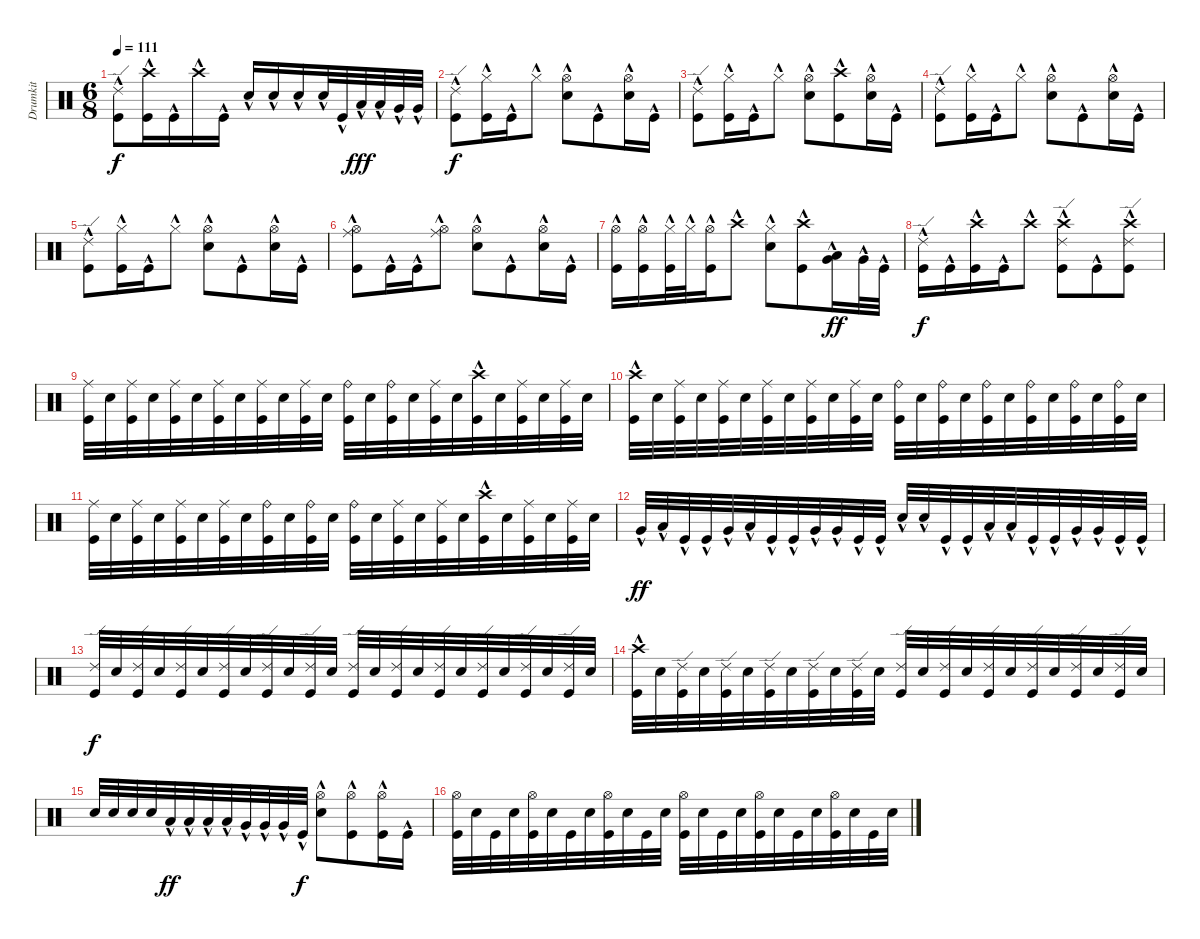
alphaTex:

\track ("Drumkit" "Drumkit") {instrument percussion}
\staff {score}
\articulation defaults
\ts (6 8)
\tempo 111
\clef neutral
\ks c
("Kick (hit)"{hac} "Ride (edge) 2"{hac}).8{dy f} ("Kick (hit)"{hac} "Crash high (hit)"{hac}).16 "Kick (hit)"{hac}.16 "Crash high (hit)"{hac}.16 "Kick (hit)"{hac}.16 "Snare (hit) 2"{hac}.16 "Snare (hit) 2"{hac}.16 "Snare (hit) 2"{hac}.16 "Snare (hit) 2"{hac}.32 "Kick (hit)"{hac}.32 "Low Tom (hit)"{hac}.32{dy fff} "Low Tom (hit)"{hac}.32 "Very Low Tom (hit)"{hac}.32 "Very Low Tom (hit)"{hac}.32 |
("Ride (edge) 2"{hac} "Kick (hit)"{hac}).8{dy f} ("Kick (hit)"{hac} "Hi-Hat (closed)"{hac}).16 "Kick (hit)"{hac}.16 "Hi-Hat (closed)"{hac}.8 ("Snare (hit) 2"{hac} "Hi-Hat (open)"{hac}).8 "Kick (hit)"{hac}.8 ("Snare (hit) 2"{hac} "Hi-Hat (open)"{hac}).16 "Kick (hit)"{hac}.16 |
("Ride (edge) 2"{hac} "Kick (hit)"{hac}).8 ("Kick (hit)"{hac} "Hi-Hat (closed)"{hac}).16 "Kick (hit)"{hac}.16 "Hi-Hat (closed)"{hac}.8 ("Snare (hit) 2"{hac} "Hi-Hat (open)"{hac}).8 ("Kick (hit)"{hac} "Crash high (hit)"{hac}).8 ("Snare (hit) 2"{hac} "Hi-Hat (open)"{hac}).16 "Kick (hit)"{hac}.16 |
("Kick (hit)"{hac} "Ride (edge) 2"{hac}).8 ("Kick (hit)"{hac} "Hi-Hat (closed)"{hac}).16 "Kick (hit)"{hac}.16 "Hi-Hat (closed)"{hac}.8 ("Snare (hit) 2"{hac} "Hi-Hat (open)"{hac}).8 "Kick (hit)"{hac}.8 ("Snare (hit) 2"{hac} "Hi-Hat (open)"{hac}).16 "Kick (hit)"{hac}.16 |
("Ride (edge) 2"{hac} "Kick (hit)"{hac}).8 ("Kick (hit)"{hac} "Hi-Hat (closed)"{hac}).16 "Kick (hit)"{hac}.16 "Hi-Hat (closed)"{hac}.8 ("Snare (hit) 2"{hac} "Hi-Hat (open)"{hac}).8 "Kick (hit)"{hac}.8 ("Snare (hit) 2"{hac} "Hi-Hat (open)"{hac}).16 "Kick (hit)"{hac}.16 |
("Kick (hit)"{hac} "Hi-Hat (open)"{hac} "Ride (middle)"{hac}).8 "Kick (hit)"{hac}.16 "Kick (hit)"{hac}.16 ("Hi-Hat (open)"{hac} "Ride (middle)"{hac}).8 ("Snare (hit) 2"{hac} "Hi-Hat (open)"{hac}).8 "Kick (hit)"{hac}.8 ("Snare (hit) 2"{hac} "Hi-Hat (open)"{hac}).16 "Kick (hit)"{hac}.16 |
("Kick (hit)"{hac} "Hi-Hat (open)"{hac}).16 ("Kick (hit)"{hac} "Hi-Hat (open)"{hac}).16 ("Kick (hit)"{hac} "Hi-Hat (closed)"{hac}).32 "Hi-Hat (closed)"{hac}.32 ("Kick (hit)"{hac} "Hi-Hat (open)"{hac}).16 "Crash high (hit)"{hac}.8 ("Snare (hit) 2"{hac} "Hi-Hat (closed)"{hac}).8 ("Kick (hit)"{hac} "Crash high (hit)"{hac}).8 ("Very Low Tom (hit)"{hac} "Low Tom (hit)"{hac}).16{dy ff} "Very Low Tom (hit)"{hac}.32 "Kick (hit)"{hac}.32 |
("Kick (hit)"{hac} "Ride (edge) 2"{hac}).16{dy f} "Kick (hit)"{hac}.16 ("Kick (hit)"{hac} "Crash high (hit)"{hac}).16 "Kick (hit)"{hac}.16 "Crash high (hit)"{hac}.8 ("Kick (hit)"{hac} "Crash high (hit)"{hac} "Ride (edge) 2"{hac}).8 "Kick (hit)"{hac}.8 ("Kick (hit)"{hac} "Crash high (hit)"{hac} "Ride (edge) 2"{hac}).8 |
("Kick (hit)" "Ride (middle)").32 "Snare (hit) 2".32 ("Kick (hit)" "Ride (middle)").32 "Snare (hit) 2".32 ("Kick (hit)" "Ride (middle)").32 "Snare (hit) 2".32 ("Kick (hit)" "Ride (middle)").32 "Snare (hit) 2".32 ("Kick (hit)" "Ride (middle)").32 "Snare (hit) 2".32 ("Kick (hit)" "Ride (middle)").32 "Snare (hit) 2".32 ("Kick (hit)" "Ride (bell)").32 "Snare (hit) 2".32 ("Kick (hit)" "Ride (bell)").32 "Snare (hit) 2".32 ("Kick (hit)" "Ride (middle)").32 "Snare (hit) 2".32 ("Kick (hit)" "Crash high (hit)"{hac}).32 "Snare (hit) 2".32 ("Kick (hit)" "Ride (middle)").32 "Snare (hit) 2".32 ("Kick (hit)" "Ride (middle)").32 "Snare (hit) 2".32 |
("Kick (hit)" "Crash high (hit)"{hac}).32 "Snare (hit) 2".32 ("Kick (hit)" "Ride (middle)").32 "Snare (hit) 2".32 ("Kick (hit)" "Ride (middle)").32 "Snare (hit) 2".32 ("Kick (hit)" "Ride (middle)").32 "Snare (hit) 2".32 ("Kick (hit)" "Ride (middle)").32 "Snare (hit) 2".32 ("Kick (hit)" "Ride (middle)").32 "Snare (hit) 2".32 ("Kick (hit)" "Ride (bell)").32 "Snare (hit) 2".32 ("Kick (hit)" "Ride (bell)").32 "Snare (hit) 2".32 ("Kick (hit)" "Ride (bell)").32 "Snare (hit) 2".32 ("Kick (hit)" "Ride (bell)").32 "Snare (hit) 2".32 ("Kick (hit)" "Ride (bell)").32 "Snare (hit) 2".32 ("Kick (hit)" "Ride (bell)").32 "Snare (hit) 2".32 |
("Kick (hit)" "Ride (middle)").32 "Snare (hit) 2".32 ("Kick (hit)" "Ride (middle)").32 "Snare (hit) 2".32 ("Kick (hit)" "Ride (middle)").32 "Snare (hit) 2".32 ("Kick (hit)" "Ride (middle)").32 "Snare (hit) 2".32 ("Kick (hit)" "Ride (bell)").32 "Snare (hit) 2".32 ("Kick (hit)" "Ride (bell)").32 "Snare (hit) 2".32 ("Kick (hit)" "Ride (bell)").32 "Snare (hit) 2".32 ("Kick (hit)" "Ride (middle)").32 "Snare (hit) 2".32 ("Kick (hit)" "Ride (middle)").32 "Snare (hit) 2".32 ("Kick (hit)" "Crash high (hit)"{hac}).32 "Snare (hit) 2".32 ("Kick (hit)" "Ride (middle)").32 "Snare (hit) 2".32 ("Kick (hit)" "Ride (middle)").32 "Snare (hit) 2".32 |
"Very Low Tom (hit)"{hac}.32{dy ff} "Low Tom (hit)"{hac}.32 "Kick (hit)"{hac}.32 "Kick (hit)"{hac}.32 "Very Low Tom (hit)"{hac}.32 "Low Tom (hit)"{hac}.32 "Kick (hit)"{hac}.32 "Kick (hit)"{hac}.32 "Very Low Tom (hit)"{hac}.32 "Very Low Tom (hit)"{hac}.32 "Kick (hit)"{hac}.32 "Kick (hit)"{hac}.32 "Snare (hit) 2"{hac}.32 "Snare (hit) 2"{hac}.32 "Kick (hit)"{hac}.32 "Kick (hit)"{hac}.32 "Low Tom (hit)"{hac}.32 "Low Tom (hit)"{hac}.32 "Kick (hit)"{hac}.32 "Kick (hit)"{hac}.32 "Very Low Tom (hit)"{hac}.32 "Very Low Tom (hit)"{hac}.32 "Kick (hit)"{hac}.32 "Kick (hit)"{hac}.32 |
("Kick (hit)" "Ride (edge) 2").32{dy f} "Snare (hit) 2".32 ("Kick (hit)" "Ride (edge) 2").32 "Snare (hit) 2".32 ("Kick (hit)" "Ride (edge) 2").32 "Snare (hit) 2".32 ("Kick (hit)" "Ride (edge) 2").32 "Snare (hit) 2".32 ("Kick (hit)" "Ride (edge) 2").32 "Snare (hit) 2".32 ("Kick (hit)" "Ride (edge) 2").32 "Snare (hit) 2".32 ("Kick (hit)" "Ride (edge) 2").32 "Snare (hit) 2".32 ("Kick (hit)" "Ride (edge) 2").32 "Snare (hit) 2".32 ("Kick (hit)" "Ride (edge) 2").32 "Snare (hit) 2".32 ("Kick (hit)" "Ride (edge) 2").32 "Snare (hit) 2".32 ("Kick (hit)" "Ride (edge) 2").32 "Snare (hit) 2".32 ("Kick (hit)" "Ride (edge) 2").32 "Snare (hit) 2".32 |
("Kick (hit)" "Crash high (hit)"{hac}).32 "Snare (hit) 2".32 ("Kick (hit)" "Ride (edge) 2").32 "Snare (hit) 2".32 ("Kick (hit)" "Ride (edge) 2").32 "Snare (hit) 2".32 ("Kick (hit)" "Ride (edge) 2").32 "Snare (hit) 2".32 ("Kick (hit)" "Ride (edge) 2").32 "Snare (hit) 2".32 ("Kick (hit)" "Ride (edge) 2").32 "Snare (hit) 2".32 ("Kick (hit)" "Ride (edge) 2").32 "Snare (hit) 2".32 ("Kick (hit)" "Ride (edge) 2").32 "Snare (hit) 2".32 ("Kick (hit)" "Ride (edge) 2").32 "Snare (hit) 2".32 ("Kick (hit)" "Ride (edge) 2").32 "Snare (hit) 2".32 ("Kick (hit)" "Ride (edge) 2").32 "Snare (hit) 2".32 ("Kick (hit)" "Ride (edge) 2").32 "Snare (hit) 2".32 |
"Snare (hit) 2".32 "Snare (hit) 2".32 "Snare (hit) 2".32 "Snare (hit) 2".32 "Low Tom (hit)"{hac}.32{dy ff} "Low Tom (hit)"{hac}.32 "Low Tom (hit)"{hac}.32 "Low Tom (hit)"{hac}.32 "Very Low Tom (hit)"{hac}.32 "Very Low Tom (hit)"{hac}.32 "Very Low Tom (hit)"{hac}.32 "Kick (hit)"{hac}.32{dy f} ("Snare (hit) 2"{hac} "Hi-Hat (open)"{hac}).8 ("Kick (hit)"{hac} "Hi-Hat (open)"{hac}).8 ("Kick (hit)"{hac} "Hi-Hat (open)"{hac}).16 "Kick (hit)"{hac}.16 |
("Kick (hit)" "Hi-Hat (open)").32 "Snare (hit) 2".32 "Kick (hit)".32 "Snare (hit) 2".32 ("Kick (hit)" "Hi-Hat (open)").32 "Snare (hit) 2".32 "Kick (hit)".32 "Snare (hit) 2".32 ("Kick (hit)" "Hi-Hat (open)").32 "Snare (hit) 2".32 "Kick (hit)".32 "Snare (hit) 2".32 ("Kick (hit)" "Hi-Hat (open)").32 "Snare (hit) 2".32 "Kick (hit)".32 "Snare (hit) 2".32 ("Kick (hit)" "Hi-Hat (open)").32 "Snare (hit) 2".32 "Kick (hit)".32 "Snare (hit) 2".32 ("Kick (hit)" "Hi-Hat (open)").32 "Snare (hit) 2".32 "Kick (hit)".32 "Snare (hit) 2".32
